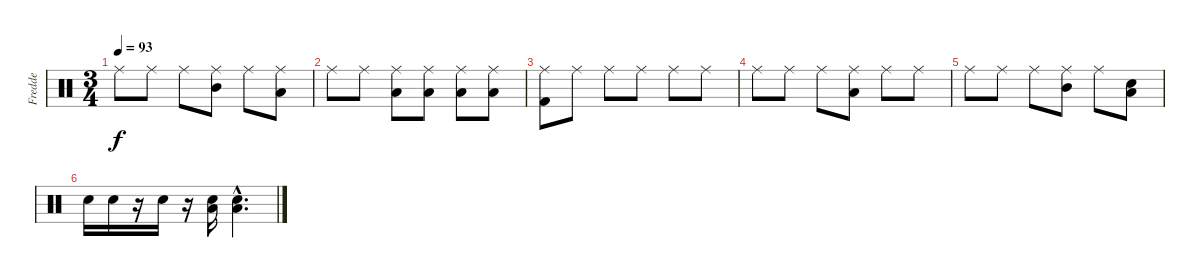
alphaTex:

\track ("Fredde" "Fredde") {instrument percussion}
\staff {score}
\articulation defaults
\ts (3 4)
\tempo 93
\clef neutral
\ks c "Ride (middle)".8{dy f} "Ride (middle)".8 "Ride (middle)".8
("Ride (middle)" "Mid Tom (hit)").8 "Ride (middle)".8 ("Ride (middle)" "Low Floor Tom (hit)").8 |
"Ride (middle)".8 "Ride (middle)".8 ("Ride (middle)" "Low Tom (hit)").8 ("Ride (middle)" "Low Floor Tom (hit)").8 ("Ride (middle)" "Low Floor Tom (hit)").8 ("Ride (middle)" "Low Floor Tom (hit)").8 |
("Ride (middle)" "Kick (hit) 2").8{volume 10} "Ride (middle)".8 "Ride (middle)".8 "Ride (middle)".8 "Ride (middle)".8 "Ride (middle)".8 |
"Ride (middle)".8 "Ride (middle)".8 "Ride (middle)".8 ("Ride (middle)" "Low Tom (hit)").8 "Ride (middle)".8 "Ride (middle)".8 |
"Ride (middle)".8{volume 7} "Ride (middle)".8 "Ride (middle)".8 ("Ride (middle)" "Mid Tom (hit)").8 "Ride (middle)".8 ("Low Floor Tom (hit)" "Snare (hit) 2").8{volume 13} |
"Snare (hit) 2".16 "Snare (hit) 2".16 r.16 "Snare (hit) 2".16 r.16 ("Low Floor Tom (hit)" "Snare (hit) 2").16 ("Low Floor Tom (hit)"{hac} "Snare (hit) 2"{hac}).4{d}
